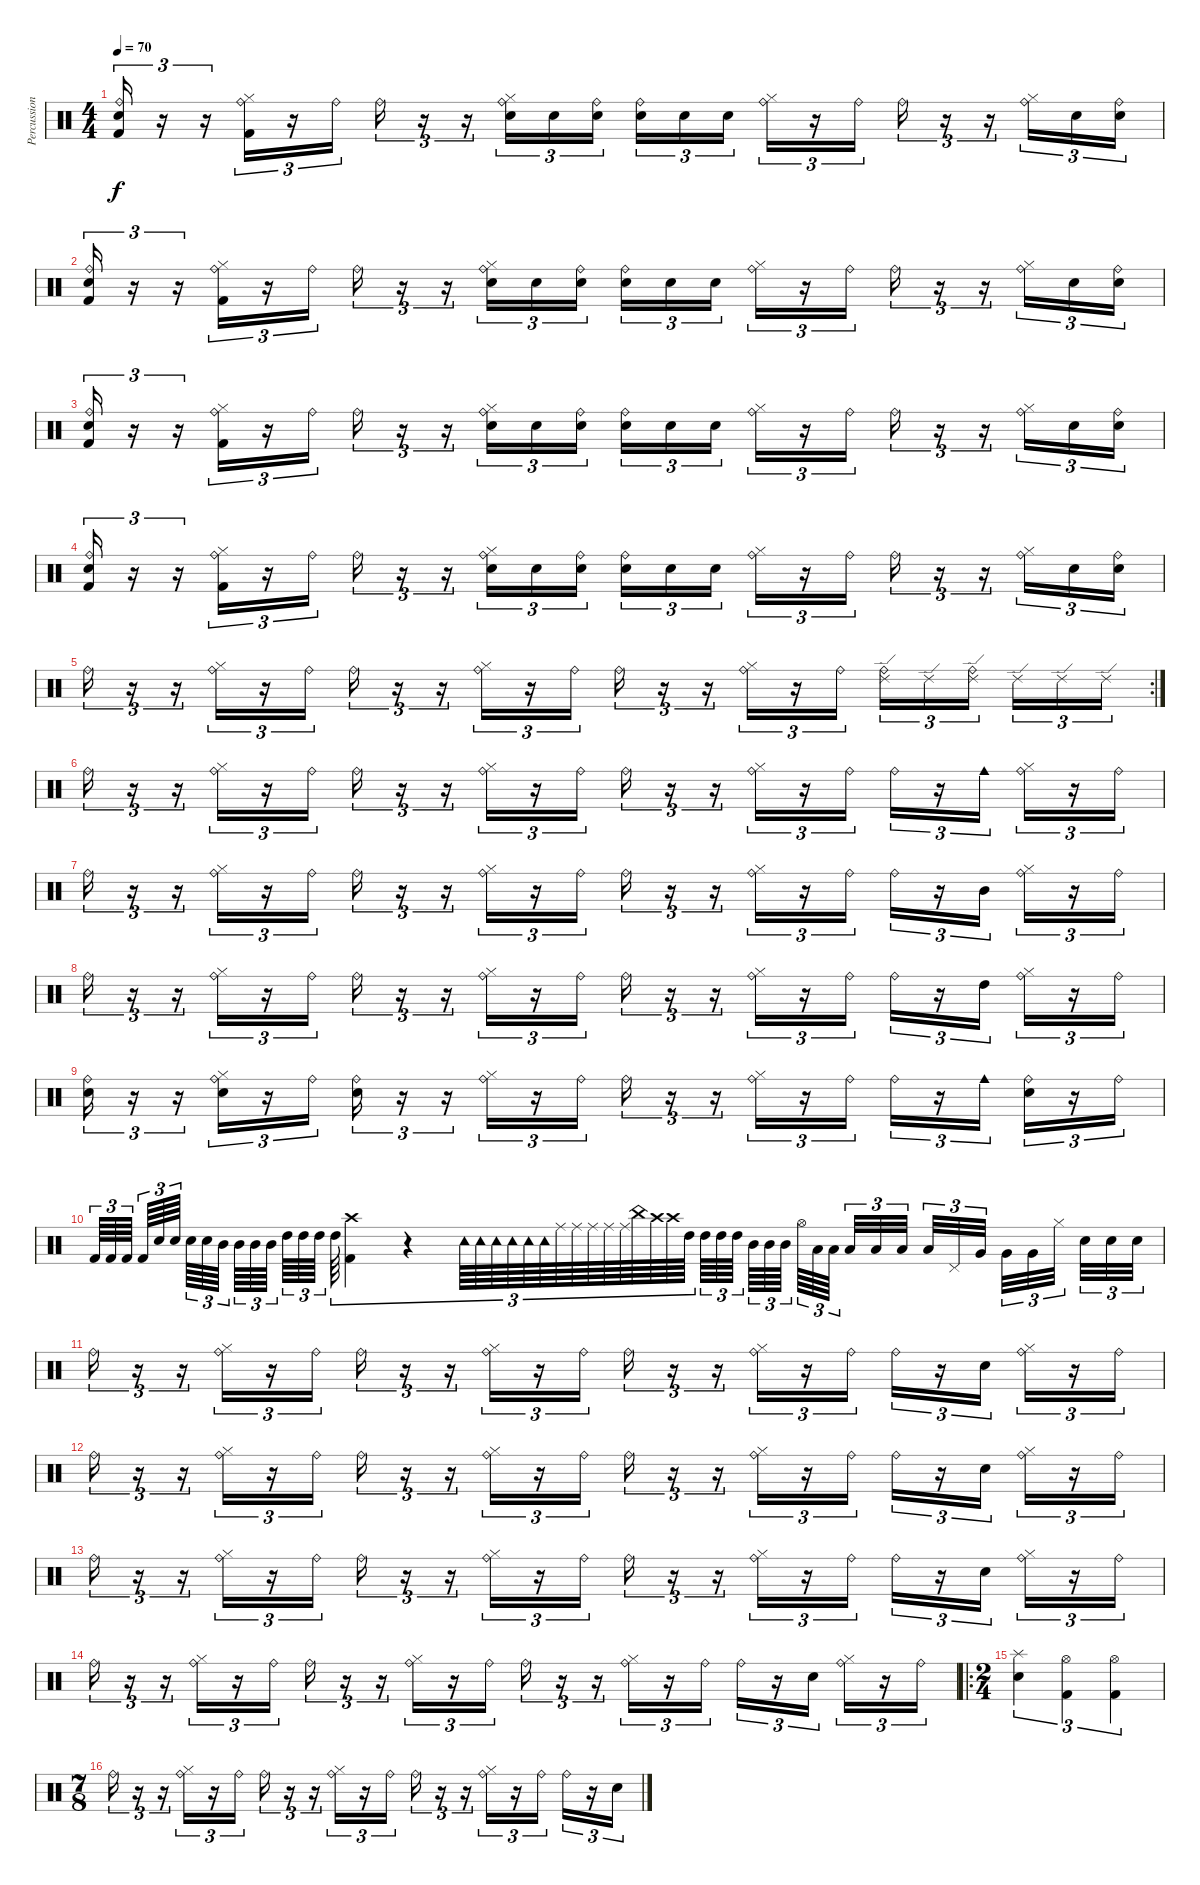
\track ("Percussion" "Percussion") {instrument percussion}
\staff {score}
\articulation defaults
\ts (4 4)
\tempo 70
\clef neutral
\ks c
("Kick (hit) 2" "Ride (bell)" "Snare (hit) 2").16{tu (3 2) dy f} r.16{tu (3 2)} r.16{tu (3 2)} ("Hi-Hat (closed)" "Ride (bell)" "Kick (hit) 2").16{tu (3 2)} r.16{tu (3 2)} "Ride (bell)".16{tu (3 2)} "Ride (bell)".16{tu (3 2)} r.16{tu (3 2)} r.16{tu (3 2)} ("Hi-Hat (closed)" "Ride (bell)" "Snare (hit) 2").16{tu (3 2)} "Snare (hit) 2".16{tu (3 2)} ("Ride (bell)" "Snare (hit) 2").16{tu (3 2)} ("Ride (bell)" "Snare (hit) 2").16{tu (3 2)} "Snare (hit) 2".16{tu (3 2)} "Snare (hit) 2".16{tu (3 2) beam splitsecondary} ("Hi-Hat (closed)" "Ride (bell)").16{tu (3 2)} r.16{tu (3 2)} "Ride (bell)".16{tu (3 2)} "Ride (bell)".16{tu (3 2)} r.16{tu (3 2)} r.16{tu (3 2)} ("Hi-Hat (closed)" "Ride (bell)").16{tu (3 2)} "Snare (hit) 2".16{tu (3 2)} ("Snare (hit) 2" "Ride (bell)").16{tu (3 2)} |
("Kick (hit) 2" "Ride (bell)" "Snare (hit) 2").16{tu (3 2)} r.16{tu (3 2)} r.16{tu (3 2)} ("Hi-Hat (closed)" "Ride (bell)" "Kick (hit) 2").16{tu (3 2)} r.16{tu (3 2)} "Ride (bell)".16{tu (3 2)} "Ride (bell)".16{tu (3 2)} r.16{tu (3 2)} r.16{tu (3 2)} ("Hi-Hat (closed)" "Ride (bell)" "Snare (hit) 2").16{tu (3 2)} "Snare (hit) 2".16{tu (3 2)} ("Ride (bell)" "Snare (hit) 2").16{tu (3 2)} ("Ride (bell)" "Snare (hit) 2").16{tu (3 2)} "Snare (hit) 2".16{tu (3 2)} "Snare (hit) 2".16{tu (3 2) beam splitsecondary} ("Hi-Hat (closed)" "Ride (bell)").16{tu (3 2)} r.16{tu (3 2)} "Ride (bell)".16{tu (3 2)} "Ride (bell)".16{tu (3 2)} r.16{tu (3 2)} r.16{tu (3 2)} ("Hi-Hat (closed)" "Ride (bell)").16{tu (3 2)} "Snare (hit) 2".16{tu (3 2)} ("Snare (hit) 2" "Ride (bell)").16{tu (3 2)} |
("Kick (hit) 2" "Ride (bell)" "Snare (hit) 2").16{tu (3 2)} r.16{tu (3 2)} r.16{tu (3 2)} ("Hi-Hat (closed)" "Ride (bell)" "Kick (hit) 2").16{tu (3 2)} r.16{tu (3 2)} "Ride (bell)".16{tu (3 2)} "Ride (bell)".16{tu (3 2)} r.16{tu (3 2)} r.16{tu (3 2)} ("Hi-Hat (closed)" "Ride (bell)" "Snare (hit) 2").16{tu (3 2)} "Snare (hit) 2".16{tu (3 2)} ("Ride (bell)" "Snare (hit) 2").16{tu (3 2)} ("Ride (bell)" "Snare (hit) 2").16{tu (3 2)} "Snare (hit) 2".16{tu (3 2)} "Snare (hit) 2".16{tu (3 2) beam splitsecondary} ("Hi-Hat (closed)" "Ride (bell)").16{tu (3 2)} r.16{tu (3 2)} "Ride (bell)".16{tu (3 2)} "Ride (bell)".16{tu (3 2)} r.16{tu (3 2)} r.16{tu (3 2)} ("Hi-Hat (closed)" "Ride (bell)").16{tu (3 2)} "Snare (hit) 2".16{tu (3 2)} ("Snare (hit) 2" "Ride (bell)").16{tu (3 2)} |
("Kick (hit) 2" "Ride (bell)" "Snare (hit) 2").16{tu (3 2)} r.16{tu (3 2)} r.16{tu (3 2)} ("Hi-Hat (closed)" "Ride (bell)" "Kick (hit) 2").16{tu (3 2)} r.16{tu (3 2)} "Ride (bell)".16{tu (3 2)} "Ride (bell)".16{tu (3 2)} r.16{tu (3 2)} r.16{tu (3 2)} ("Hi-Hat (closed)" "Ride (bell)" "Snare (hit) 2").16{tu (3 2)} "Snare (hit) 2".16{tu (3 2)} ("Ride (bell)" "Snare (hit) 2").16{tu (3 2)} ("Ride (bell)" "Snare (hit) 2").16{tu (3 2)} "Snare (hit) 2".16{tu (3 2)} "Snare (hit) 2".16{tu (3 2) beam splitsecondary} ("Hi-Hat (closed)" "Ride (bell)").16{tu (3 2)} r.16{tu (3 2)} "Ride (bell)".16{tu (3 2)} "Ride (bell)".16{tu (3 2)} r.16{tu (3 2)} r.16{tu (3 2)} ("Hi-Hat (closed)" "Ride (bell)").16{tu (3 2)} "Snare (hit) 2".16{tu (3 2)} ("Snare (hit) 2" "Ride (bell)").16{tu (3 2)} |
\rc 2 "Ride (bell)".16{tu (3 2)}
r.16{tu (3 2)} r.16{tu (3 2)} ("Hi-Hat (closed)" "Ride (bell)").16{tu (3 2)} r.16{tu (3 2)} "Ride (bell)".16{tu (3 2)} "Ride (bell)".16{tu (3 2)} r.16{tu (3 2)} r.16{tu (3 2)} ("Hi-Hat (closed)" "Ride (bell)").16{tu (3 2)} r.16{tu (3 2)} "Ride (bell)".16{tu (3 2)} "Ride (bell)".16{tu (3 2)} r.16{tu (3 2)} r.16{tu (3 2)} ("Hi-Hat (closed)" "Ride (bell)").16{tu (3 2)} r.16{tu (3 2)} "Ride (bell)".16{tu (3 2)} ("Ride (edge) 2" "Ride (bell)").16{tu (3 2)} "Ride (edge) 2".16{tu (3 2)} ("Ride (edge) 2" "Ride (bell)").16{tu (3 2) beam splitsecondary} "Ride (edge) 2".16{tu (3 2)} "Ride (edge) 2".16{tu (3 2)} "Ride (edge) 2".16{tu (3 2)} |
"Ride (bell)".16{tu (3 2)} r.16{tu (3 2)} r.16{tu (3 2)} ("Hi-Hat (closed)" "Ride (bell)").16{tu (3 2)} r.16{tu (3 2)} "Ride (bell)".16{tu (3 2)} "Ride (bell)".16{tu (3 2)} r.16{tu (3 2)} r.16{tu (3 2)} ("Hi-Hat (closed)" "Ride (bell)").16{tu (3 2)} r.16{tu (3 2)} "Ride (bell)".16{tu (3 2)} "Ride (bell)".16{tu (3 2)} r.16{tu (3 2)} r.16{tu (3 2)} ("Hi-Hat (closed)" "Ride (bell)").16{tu (3 2)} r.16{tu (3 2)} "Ride (bell)".16{tu (3 2)} "Ride (bell)".16{tu (3 2)} r.16{tu (3 2)} "Cowbell medium (hit)".16{tu (3 2)} ("Hi-Hat (closed)" "Ride (bell)").16{tu (3 2)} r.16{tu (3 2)} "Ride (bell)".16{tu (3 2)} |
"Ride (bell)".16{tu (3 2)} r.16{tu (3 2)} r.16{tu (3 2)} ("Hi-Hat (closed)" "Ride (bell)").16{tu (3 2)} r.16{tu (3 2)} "Ride (bell)".16{tu (3 2)} "Ride (bell)".16{tu (3 2)} r.16{tu (3 2)} r.16{tu (3 2)} ("Hi-Hat (closed)" "Ride (bell)").16{tu (3 2)} r.16{tu (3 2)} "Ride (bell)".16{tu (3 2)} "Ride (bell)".16{tu (3 2)} r.16{tu (3 2)} r.16{tu (3 2)} ("Hi-Hat (closed)" "Ride (bell)").16{tu (3 2)} r.16{tu (3 2)} "Ride (bell)".16{tu (3 2)} "Ride (bell)".16{tu (3 2)} r.16{tu (3 2)} "Mid Tom (hit)".16{tu (3 2)} ("Hi-Hat (closed)" "Ride (bell)").16{tu (3 2)} r.16{tu (3 2)} "Ride (bell)".16{tu (3 2)} |
"Ride (bell)".16{tu (3 2)} r.16{tu (3 2)} r.16{tu (3 2)} ("Hi-Hat (closed)" "Ride (bell)").16{tu (3 2)} r.16{tu (3 2)} "Ride (bell)".16{tu (3 2)} "Ride (bell)".16{tu (3 2)} r.16{tu (3 2)} r.16{tu (3 2)} ("Hi-Hat (closed)" "Ride (bell)").16{tu (3 2)} r.16{tu (3 2)} "Ride (bell)".16{tu (3 2)} "Ride (bell)".16{tu (3 2)} r.16{tu (3 2)} r.16{tu (3 2)} ("Hi-Hat (closed)" "Ride (bell)").16{tu (3 2)} r.16{tu (3 2)} "Ride (bell)".16{tu (3 2)} "Ride (bell)".16{tu (3 2)} r.16{tu (3 2)} "High Tom (hit)".16{tu (3 2)} ("Hi-Hat (closed)" "Ride (bell)").16{tu (3 2)} r.16{tu (3 2)} "Ride (bell)".16{tu (3 2)} |
("Snare (hit) 2" "Ride (bell)").16{tu (3 2)} r.16{tu (3 2)} r.16{tu (3 2)} ("Hi-Hat (closed)" "Snare (hit) 2" "Ride (bell)").16{tu (3 2)} r.16{tu (3 2)} "Ride (bell)".16{tu (3 2)} ("Snare (hit) 2" "Ride (bell)").16{tu (3 2)} r.16{tu (3 2)} r.16{tu (3 2)} ("Hi-Hat (closed)" "Ride (bell)").16{tu (3 2)} r.16{tu (3 2)} "Ride (bell)".16{tu (3 2)} "Ride (bell)".16{tu (3 2)} r.16{tu (3 2)} r.16{tu (3 2)} ("Hi-Hat (closed)" "Ride (bell)").16{tu (3 2)} r.16{tu (3 2)} "Ride (bell)".16{tu (3 2)} "Ride (bell)".16{tu (3 2)} r.16{tu (3 2)} "Cowbell medium (hit)".16{tu (3 2)} ("Snare (hit) 2" "Ride (bell)").16{tu (3 2)} r.16{tu (3 2)} "Ride (bell)".16{tu (3 2)} |
"Kick (hit) 2".64{tu (3 2)} "Kick (hit) 2".64{tu (3 2)} "Kick (hit) 2".64{tu (3 2) beam splitsecondary} "Kick (hit) 2".64{tu (3 2)} "Snare (hit) 2".64{tu (3 2)} "Snare (hit) 2".64{tu (3 2) beam splitsecondary} "Snare (hit) 2".64{tu (3 2)} "Snare (hit) 2".64{tu (3 2)} "Mid Tom (hit)".64{tu (3 2) beam splitsecondary} "Mid Tom (hit)".64{tu (3 2)} "Mid Tom (hit)".64{tu (3 2)} "Mid Tom (hit)".64{tu (3 2) beam splitsecondary} "High Tom (hit)".64{tu (3 2)} "High Tom (hit)".64{tu (3 2)} "High Tom (hit)".64{tu (3 2) beam splitsecondary} "High Tom (hit)".64{tu (3 2)} ("Crash high (hit)" "Kick (hit) 2").4{tu (3 2)} r.4{tu (3 2)} "Tambourine (hit)".64{tu (3 2)} "Tambourine (hit)".64{tu (3 2)} "Tambourine (hit)".64{tu (3 2)} "Tambourine (hit)".64{tu (3 2)} "Tambourine (hit)".64{tu (3 2)} "Tambourine (hit)".64{tu (3 2)} "Ride (middle)".64{tu (3 2)} "Ride (middle)".64{tu (3 2)} "Ride (middle)".64{tu (3 2)} "Ride (middle)".64{tu (3 2)} "Ride (middle)".64{tu (3 2)} "China (hit)".64{tu (3 2)} "Crash high (hit)".64{tu (3 2)} "Crash high (hit)".64{tu (3 2)} "High Tom (hit)".64{tu (3 2) beam splitsecondary} "High Tom (hit)".64{tu (3 2)} "High Tom (hit)".64{tu (3 2)} "High Tom (hit)".64{tu (3 2) beam splitsecondary} "Mid Tom (hit)".64{tu (3 2)} "Mid Tom (hit)".64{tu (3 2)} "Mid Tom (hit)".64{tu (3 2) beam splitsecondary} "Hi-Hat (open)".64{tu (3 2)} "Low Tom (hit)".64{tu (3 2)} "Low Tom (hit)".64{tu (3 2)} "Low Tom (hit)".32{tu (3 2)} "Low Tom (hit)".32{tu (3 2)} "Low Tom (hit)".32{tu (3 2) beam splitsecondary} "Low Tom (hit)".32{tu (3 2)} "Pedal Hi-Hat (hit)".32{tu (3 2)} "Very Low Tom (hit)".32{tu (3 2) beam splitsecondary} "Very Low Tom (hit)".32{tu (3 2)} "Very Low Tom (hit)".32{tu (3 2)} "Hi-Hat (closed)".32{tu (3 2) beam splitsecondary} "Snare (hit) 2".32{tu (3 2)} "Snare (hit) 2".32{tu (3 2)} "Snare (hit) 2".32{tu (3 2)} |
"Ride (bell)".16{tu (3 2)} r.16{tu (3 2)} r.16{tu (3 2)} ("Hi-Hat (closed)" "Ride (bell)").16{tu (3 2)} r.16{tu (3 2)} "Ride (bell)".16{tu (3 2)} "Ride (bell)".16{tu (3 2)} r.16{tu (3 2)} r.16{tu (3 2)} ("Hi-Hat (closed)" "Ride (bell)").16{tu (3 2)} r.16{tu (3 2)} "Ride (bell)".16{tu (3 2)} "Ride (bell)".16{tu (3 2)} r.16{tu (3 2)} r.16{tu (3 2)} ("Hi-Hat (closed)" "Ride (bell)").16{tu (3 2)} r.16{tu (3 2)} "Ride (bell)".16{tu (3 2)} "Ride (bell)".16{tu (3 2)} r.16{tu (3 2)} "Snare (hit) 2".16{tu (3 2)} ("Hi-Hat (closed)" "Ride (bell)").16{tu (3 2)} r.16{tu (3 2)} "Ride (bell)".16{tu (3 2)} |
"Ride (bell)".16{tu (3 2)} r.16{tu (3 2)} r.16{tu (3 2)} ("Hi-Hat (closed)" "Ride (bell)").16{tu (3 2)} r.16{tu (3 2)} "Ride (bell)".16{tu (3 2)} "Ride (bell)".16{tu (3 2)} r.16{tu (3 2)} r.16{tu (3 2)} ("Hi-Hat (closed)" "Ride (bell)").16{tu (3 2)} r.16{tu (3 2)} "Ride (bell)".16{tu (3 2)} "Ride (bell)".16{tu (3 2)} r.16{tu (3 2)} r.16{tu (3 2)} ("Hi-Hat (closed)" "Ride (bell)").16{tu (3 2)} r.16{tu (3 2)} "Ride (bell)".16{tu (3 2)} "Ride (bell)".16{tu (3 2)} r.16{tu (3 2)} "Snare (hit) 2".16{tu (3 2)} ("Hi-Hat (closed)" "Ride (bell)").16{tu (3 2)} r.16{tu (3 2)} "Ride (bell)".16{tu (3 2)} |
"Ride (bell)".16{tu (3 2)} r.16{tu (3 2)} r.16{tu (3 2)} ("Hi-Hat (closed)" "Ride (bell)").16{tu (3 2)} r.16{tu (3 2)} "Ride (bell)".16{tu (3 2)} "Ride (bell)".16{tu (3 2)} r.16{tu (3 2)} r.16{tu (3 2)} ("Hi-Hat (closed)" "Ride (bell)").16{tu (3 2)} r.16{tu (3 2)} "Ride (bell)".16{tu (3 2)} "Ride (bell)".16{tu (3 2)} r.16{tu (3 2)} r.16{tu (3 2)} ("Hi-Hat (closed)" "Ride (bell)").16{tu (3 2)} r.16{tu (3 2)} "Ride (bell)".16{tu (3 2)} "Ride (bell)".16{tu (3 2)} r.16{tu (3 2)} "Snare (hit) 2".16{tu (3 2)} ("Hi-Hat (closed)" "Ride (bell)").16{tu (3 2)} r.16{tu (3 2)} "Ride (bell)".16{tu (3 2)} |
"Ride (bell)".16{tu (3 2)} r.16{tu (3 2)} r.16{tu (3 2)} ("Hi-Hat (closed)" "Ride (bell)").16{tu (3 2)} r.16{tu (3 2)} "Ride (bell)".16{tu (3 2)} "Ride (bell)".16{tu (3 2)} r.16{tu (3 2)} r.16{tu (3 2)} ("Hi-Hat (closed)" "Ride (bell)").16{tu (3 2)} r.16{tu (3 2)} "Ride (bell)".16{tu (3 2)} "Ride (bell)".16{tu (3 2)} r.16{tu (3 2)} r.16{tu (3 2)} ("Hi-Hat (closed)" "Ride (bell)").16{tu (3 2)} r.16{tu (3 2)} "Ride (bell)".16{tu (3 2)} "Ride (bell)".16{tu (3 2)} r.16{tu (3 2)} "Snare (hit) 2".16{tu (3 2)} ("Hi-Hat (closed)" "Ride (bell)").16{tu (3 2)} r.16{tu (3 2)} "Ride (bell)".16{tu (3 2)} |
\ro
\ts (2 4)
("Snare (hit) 2" "Splash (hit)").4{tu (3 2)} ("Kick (hit) 2" "Hi-Hat (open)").4{tu (3 2)} ("Kick (hit) 2" "Hi-Hat (open)").4{tu (3 2)} |
\ts (7 8)
"Ride (bell)".16{tu (3 2)} r.16{tu (3 2)} r.16{tu (3 2)} ("Hi-Hat (closed)" "Ride (bell)").16{tu (3 2)} r.16{tu (3 2)} "Ride (bell)".16{tu (3 2)} "Ride (bell)".16{tu (3 2)} r.16{tu (3 2)} r.16{tu (3 2)} ("Hi-Hat (closed)" "Ride (bell)").16{tu (3 2)} r.16{tu (3 2)} "Ride (bell)".16{tu (3 2)} "Ride (bell)".16{tu (3 2)} r.16{tu (3 2)} r.16{tu (3 2)} ("Hi-Hat (closed)" "Ride (bell)").16{tu (3 2)} r.16{tu (3 2)} "Ride (bell)".16{tu (3 2)} "Ride (bell)".16{tu (3 2)} r.16{tu (3 2)} "Snare (hit) 2".16{tu (3 2)}
